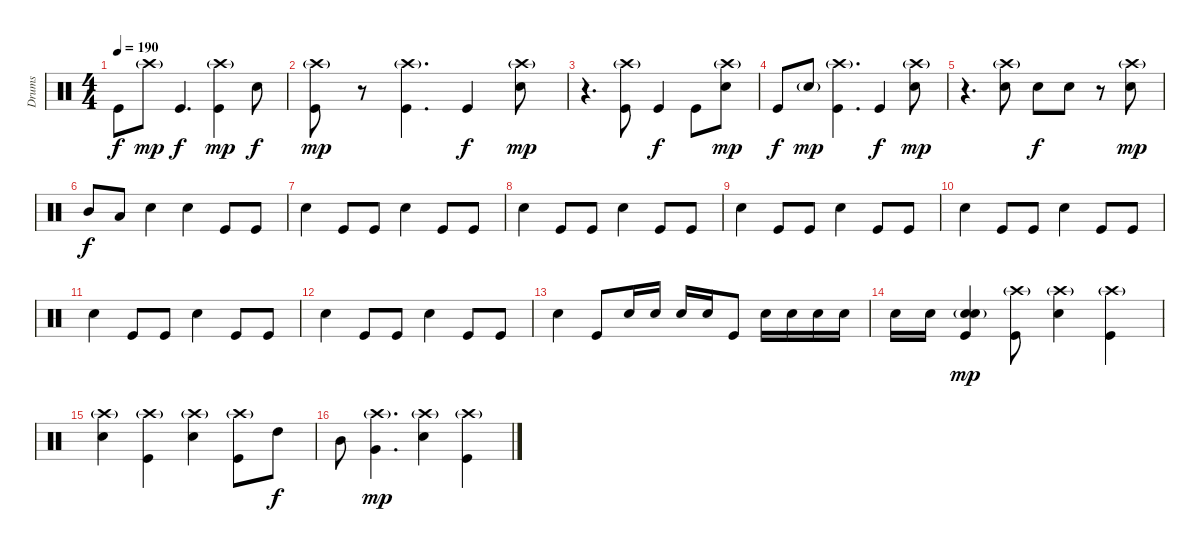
\track ("Drums" "Drums") {instrument percussion}
\staff {score}
\articulation defaults
\ts (4 4)
\tempo 190
\clef neutral
\ks c "Kick (hit)".8{dy f} "Crash high (hit)"{g}.8{dy mp} "Kick (hit)".4{d dy f}
("Kick (hit)" "Crash high (hit)"{g}).4{dy mp} "Electric Snare (hit)".8{dy f} |
("Kick (hit)" "Crash high (hit)"{g}).8{dy mp} r.8 ("Kick (hit)" "Crash high (hit)"{g}).4{d} "Kick (hit)".4{dy f} ("Electric Snare (hit)" "Crash high (hit)"{g}).8{dy mp} |
r.4{d} ("Kick (hit)" "Crash high (hit)"{g}).8 "Kick (hit)".4{dy f} "Kick (hit)".8 ("Electric Snare (hit)" "Crash high (hit)"{g}).8{dy mp} |
"Kick (hit)".8{dy f} "Electric Snare (hit)"{g}.8{dy mp} ("Kick (hit)" "Crash high (hit)"{g}).4{d} "Kick (hit)".4{dy f} ("Electric Snare (hit)" "Crash high (hit)"{g}).8{dy mp} |
r.4{d} ("Electric Snare (hit)" "Crash high (hit)"{g}).8 "Electric Snare (hit)".8{dy f} "Electric Snare (hit)".8 r.8 ("Electric Snare (hit)" "Crash high (hit)"{g}).8{dy mp} |
"Mid Tom (hit)".8{dy f} "Low Tom (hit)".8 "Electric Snare (hit)".4 "Snare (hit) 2".4 "Kick (hit)".8 "Kick (hit)".8 |
"Snare (hit) 2".4 "Kick (hit)".8 "Kick (hit)".8 "Snare (hit) 2".4 "Kick (hit)".8 "Kick (hit)".8 |
"Snare (hit) 2".4 "Kick (hit)".8 "Kick (hit)".8 "Snare (hit) 2".4 "Kick (hit)".8 "Kick (hit)".8 |
"Snare (hit) 2".4 "Kick (hit)".8 "Kick (hit)".8 "Snare (hit) 2".4 "Kick (hit)".8 "Kick (hit)".8 |
"Snare (hit) 2".4 "Kick (hit)".8 "Kick (hit)".8 "Snare (hit) 2".4 "Kick (hit)".8 "Kick (hit)".8 |
"Snare (hit) 2".4 "Kick (hit)".8 "Kick (hit)".8 "Snare (hit) 2".4 "Kick (hit)".8 "Kick (hit)".8 |
"Snare (hit) 2".4 "Kick (hit)".8 "Kick (hit)".8 "Snare (hit) 2".4 "Kick (hit)".8 "Kick (hit)".8 |
"Snare (hit) 2".4 "Kick (hit)".8 "Electric Snare (hit)".16 "Electric Snare (hit)".16 "Electric Snare (hit)".16 "Electric Snare (hit)".16 "Kick (hit)".8 "Electric Snare (hit)".16 "Electric Snare (hit)".16 "Electric Snare (hit)".16 "Electric Snare (hit)".16 |
"Electric Snare (hit)".16 "Electric Snare (hit)".16 ("Electric Snare (hit)"{g} "Kick (hit)" "Electric Snare (hit)").4{dy mp} ("Kick (hit)" "Crash high (hit)"{g}).8 ("Electric Snare (hit)" "Crash high (hit)"{g}).4 ("Kick (hit)" "Crash high (hit)"{g}).4 |
("Electric Snare (hit)" "Crash high (hit)"{g}).4 ("Kick (hit)" "Crash high (hit)"{g}).4 ("Electric Snare (hit)" "Crash high (hit)"{g}).4 ("Kick (hit)" "Crash high (hit)"{g}).8 "High Tom (hit)".8{dy f} |
"Mid Tom (hit)".8 ("Very Low Tom (hit)" "Crash high (hit)"{g}).4{d dy mp} ("Electric Snare (hit)" "Crash high (hit)"{g}).4 ("Kick (hit)" "Crash high (hit)"{g}).4
